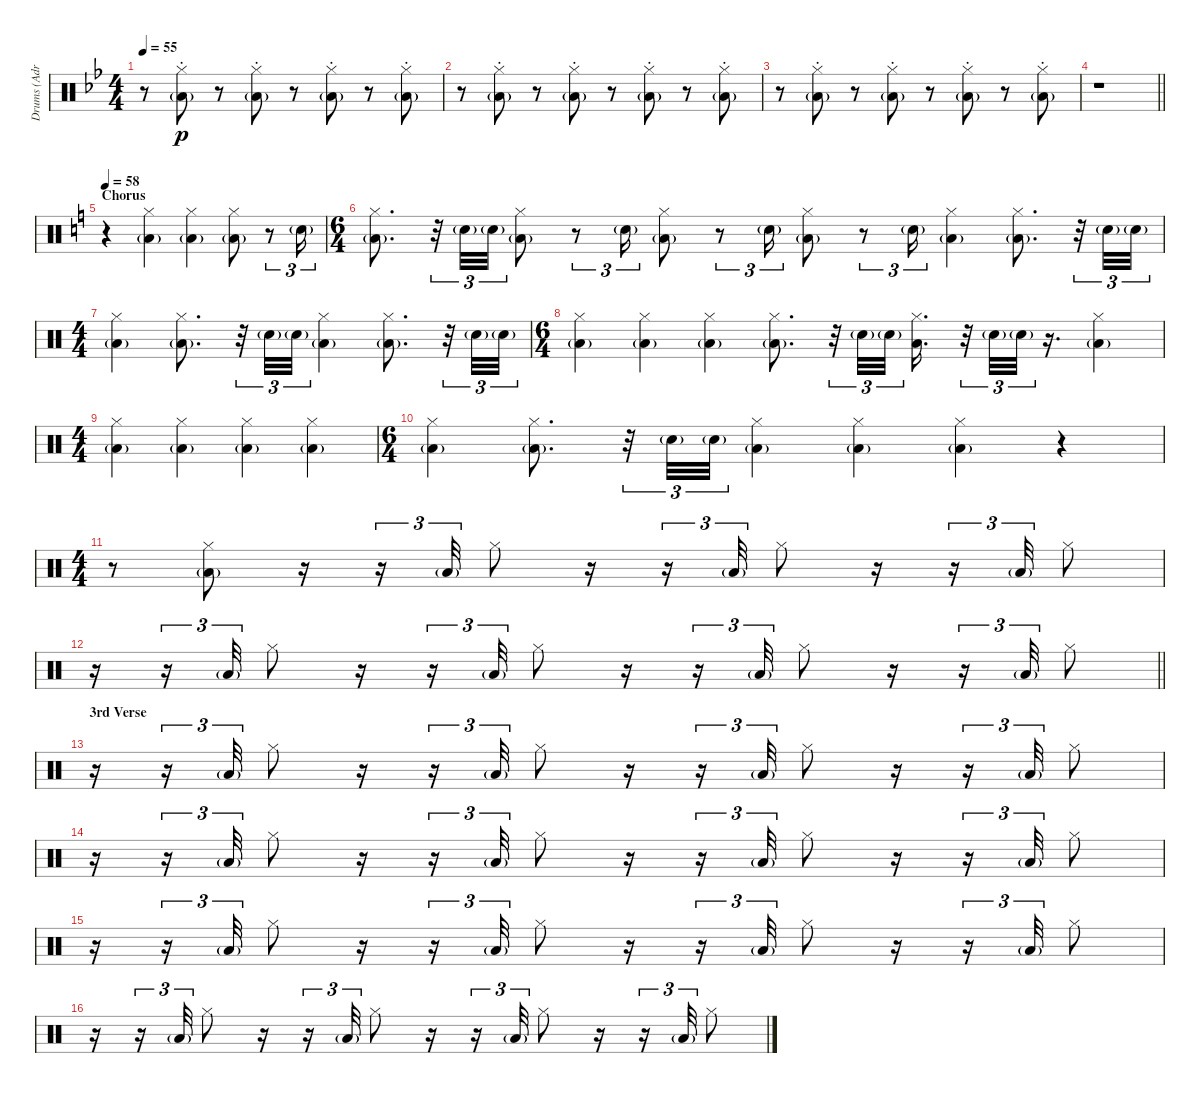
\track ("Drums (Adrian Macintosh)" "Drums (Adr") {instrument percussion}
\staff {score}
\articulation defaults
\ts (4 4)
\tempo 55
\clef neutral
\ks gminor
r.8{dy p} ("Hi-Hat (closed)"{st} "Low Floor Tom (hit)"{g}).8 r.8 ("Hi-Hat (closed)"{st} "Low Floor Tom (hit)"{g}).8 r.8 ("Hi-Hat (closed)"{st} "Low Floor Tom (hit)"{g}).8 r.8 ("Hi-Hat (closed)"{st} "Low Floor Tom (hit)"{g}).8 |
r.8 ("Hi-Hat (closed)"{st} "Low Floor Tom (hit)"{g}).8 r.8 ("Hi-Hat (closed)"{st} "Low Floor Tom (hit)"{g}).8 r.8 ("Hi-Hat (closed)"{st} "Low Floor Tom (hit)"{g}).8 r.8 ("Hi-Hat (closed)"{st} "Low Floor Tom (hit)"{g}).8 |
r.8 ("Hi-Hat (closed)"{st} "Low Floor Tom (hit)"{g}).8 r.8 ("Hi-Hat (closed)"{st} "Low Floor Tom (hit)"{g}).8 r.8 ("Hi-Hat (closed)"{st} "Low Floor Tom (hit)"{g}).8 r.8 ("Hi-Hat (closed)"{st} "Low Floor Tom (hit)"{g}).8 |
\barLineRight lightlight
r.1 |
\section ("" "Chorus")
\tempo 58
\ks aminor
r.4 ("Hi-Hat (closed)" "Low Floor Tom (hit)"{g}).4 ("Hi-Hat (closed)" "Low Floor Tom (hit)"{g}).4 ("Hi-Hat (closed)" "Low Floor Tom (hit)"{g}).8 r.8{tu (3 2)} "Snare (hit) 2"{g}.16{tu (3 2)} |
\ts (6 4)
("Hi-Hat (closed)" "Low Floor Tom (hit)"{g}).8{d} r.32{tu (3 2)} "Snare (hit) 2"{g}.32{tu (3 2)} "Snare (hit) 2"{g}.32{tu (3 2)} ("Hi-Hat (closed)" "Low Floor Tom (hit)"{g}).8 r.8{tu (3 2)} "Snare (hit) 2"{g}.16{tu (3 2)} ("Hi-Hat (closed)" "Low Floor Tom (hit)"{g}).8 r.8{tu (3 2)} "Snare (hit) 2"{g}.16{tu (3 2)} ("Hi-Hat (closed)" "Low Floor Tom (hit)"{g}).8 r.8{tu (3 2)} "Snare (hit) 2"{g}.16{tu (3 2)} ("Hi-Hat (closed)" "Low Floor Tom (hit)"{g}).4 ("Hi-Hat (closed)" "Low Floor Tom (hit)"{g}).8{d} r.32{tu (3 2)} "Snare (hit) 2"{g}.32{tu (3 2)} "Snare (hit) 2"{g}.32{tu (3 2)} |
\ts (4 4)
("Hi-Hat (closed)" "Low Floor Tom (hit)"{g}).4 ("Hi-Hat (closed)" "Low Floor Tom (hit)"{g}).8{d} r.32{tu (3 2)} "Snare (hit) 2"{g}.32{tu (3 2)} "Snare (hit) 2"{g}.32{tu (3 2)} ("Hi-Hat (closed)" "Low Floor Tom (hit)"{g}).4 ("Hi-Hat (closed)" "Low Floor Tom (hit)"{g}).8{d} r.32{tu (3 2)} "Snare (hit) 2"{g}.32{tu (3 2)} "Snare (hit) 2"{g}.32{tu (3 2)} |
\ts (6 4)
("Hi-Hat (closed)" "Low Floor Tom (hit)"{g}).4 ("Hi-Hat (closed)" "Low Floor Tom (hit)"{g}).4 ("Hi-Hat (closed)" "Low Floor Tom (hit)"{g}).4 ("Hi-Hat (closed)" "Low Floor Tom (hit)"{g}).8{d} r.32{tu (3 2)} "Snare (hit) 2"{g}.32{tu (3 2)} "Snare (hit) 2"{g}.32{tu (3 2) beam splitsecondary} ("Hi-Hat (closed)" "Low Floor Tom (hit)").16{d} r.32{tu (3 2)} "Snare (hit) 2"{g}.32{tu (3 2)} "Snare (hit) 2"{g}.32{tu (3 2)} r.16{d} ("Hi-Hat (closed)" "Low Floor Tom (hit)"{g}).4 |
\ts (4 4)
("Hi-Hat (closed)" "Low Floor Tom (hit)"{g}).4 ("Hi-Hat (closed)" "Low Floor Tom (hit)"{g}).4 ("Hi-Hat (closed)" "Low Floor Tom (hit)"{g}).4 ("Hi-Hat (closed)" "Low Floor Tom (hit)"{g}).4 |
\ts (6 4)
("Hi-Hat (closed)" "Low Floor Tom (hit)"{g}).4 ("Hi-Hat (closed)" "Low Floor Tom (hit)"{g}).8{d} r.32{tu (3 2)} "Snare (hit) 2"{g}.32{tu (3 2)} "Snare (hit) 2"{g}.32{tu (3 2)} ("Hi-Hat (closed)" "Low Floor Tom (hit)"{g}).4 ("Hi-Hat (closed)" "Low Floor Tom (hit)"{g}).4 ("Hi-Hat (closed)" "Low Floor Tom (hit)"{g}).4 r.4 |
\ts (4 4)
r.8 ("Hi-Hat (closed)" "Low Floor Tom (hit)"{g}).8 r.16 r.16{tu (3 2)} "Low Floor Tom (hit)"{g}.32{tu (3 2)} "Hi-Hat (closed)".8 r.16 r.16{tu (3 2)} "Low Floor Tom (hit)"{g}.32{tu (3 2)} "Hi-Hat (closed)".8 r.16 r.16{tu (3 2)} "Low Floor Tom (hit)"{g}.32{tu (3 2)} "Hi-Hat (closed)".8 |
\barLineRight lightlight
r.16 r.16{tu (3 2)} "Low Floor Tom (hit)"{g}.32{tu (3 2)} "Hi-Hat (closed)".8 r.16 r.16{tu (3 2)} "Low Floor Tom (hit)"{g}.32{tu (3 2)} "Hi-Hat (closed)".8 r.16 r.16{tu (3 2)} "Low Floor Tom (hit)"{g}.32{tu (3 2)} "Hi-Hat (closed)".8 r.16 r.16{tu (3 2)} "Low Floor Tom (hit)"{g}.32{tu (3 2)} "Hi-Hat (closed)".8 |
\section ("" "3rd Verse")
r.16 r.16{tu (3 2)} "Low Floor Tom (hit)"{g}.32{tu (3 2)} "Hi-Hat (closed)".8 r.16 r.16{tu (3 2)} "Low Floor Tom (hit)"{g}.32{tu (3 2)} "Hi-Hat (closed)".8 r.16 r.16{tu (3 2)} "Low Floor Tom (hit)"{g}.32{tu (3 2)} "Hi-Hat (closed)".8 r.16 r.16{tu (3 2)} "Low Floor Tom (hit)"{g}.32{tu (3 2)} "Hi-Hat (closed)".8 |
r.16 r.16{tu (3 2)} "Low Floor Tom (hit)"{g}.32{tu (3 2)} "Hi-Hat (closed)".8 r.16 r.16{tu (3 2)} "Low Floor Tom (hit)"{g}.32{tu (3 2)} "Hi-Hat (closed)".8 r.16 r.16{tu (3 2)} "Low Floor Tom (hit)"{g}.32{tu (3 2)} "Hi-Hat (closed)".8 r.16 r.16{tu (3 2)} "Low Floor Tom (hit)"{g}.32{tu (3 2)} "Hi-Hat (closed)".8 |
r.16 r.16{tu (3 2)} "Low Floor Tom (hit)"{g}.32{tu (3 2)} "Hi-Hat (closed)".8 r.16 r.16{tu (3 2)} "Low Floor Tom (hit)"{g}.32{tu (3 2)} "Hi-Hat (closed)".8 r.16 r.16{tu (3 2)} "Low Floor Tom (hit)"{g}.32{tu (3 2)} "Hi-Hat (closed)".8 r.16 r.16{tu (3 2)} "Low Floor Tom (hit)"{g}.32{tu (3 2)} "Hi-Hat (closed)".8 |
r.16 r.16{tu (3 2)} "Low Floor Tom (hit)"{g}.32{tu (3 2)} "Hi-Hat (closed)".8 r.16 r.16{tu (3 2)} "Low Floor Tom (hit)"{g}.32{tu (3 2)} "Hi-Hat (closed)".8 r.16 r.16{tu (3 2)} "Low Floor Tom (hit)"{g}.32{tu (3 2)} "Hi-Hat (closed)".8 r.16 r.16{tu (3 2)} "Low Floor Tom (hit)"{g}.32{tu (3 2)} "Hi-Hat (closed)".8
